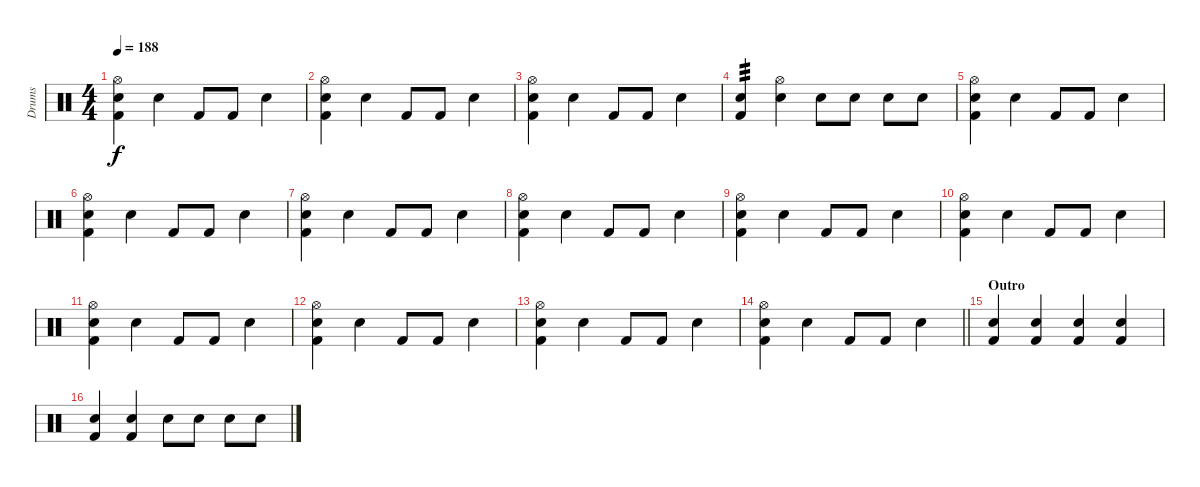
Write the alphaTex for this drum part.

\track ("Drums" "Drums") {instrument percussion}
\staff {score}
\articulation defaults
\ts (4 4)
\tempo 188
\clef neutral
\ks c
("Hi-Hat (open)" "Electric Snare (hit)" "Kick (hit) 2").4{dy f} "Electric Snare (hit)".4 "Kick (hit) 2".8 "Kick (hit) 2".8 "Electric Snare (hit)".4 |
("Hi-Hat (open)" "Electric Snare (hit)" "Kick (hit) 2").4 "Electric Snare (hit)".4 "Kick (hit) 2".8 "Kick (hit) 2".8 "Electric Snare (hit)".4 |
("Hi-Hat (open)" "Electric Snare (hit)" "Kick (hit) 2").4 "Electric Snare (hit)".4 "Kick (hit) 2".8 "Kick (hit) 2".8 "Electric Snare (hit)".4 |
("Electric Snare (hit)" "Kick (hit) 2").4{tp 3} ("Hi-Hat (open)" "Electric Snare (hit)").4 "Electric Snare (hit)".8 "Electric Snare (hit)".8 "Electric Snare (hit)".8 "Electric Snare (hit)".8 |
("Hi-Hat (open)" "Electric Snare (hit)" "Kick (hit) 2").4 "Electric Snare (hit)".4 "Kick (hit) 2".8 "Kick (hit) 2".8 "Electric Snare (hit)".4 |
("Hi-Hat (open)" "Electric Snare (hit)" "Kick (hit) 2").4 "Electric Snare (hit)".4 "Kick (hit) 2".8 "Kick (hit) 2".8 "Electric Snare (hit)".4 |
("Hi-Hat (open)" "Electric Snare (hit)" "Kick (hit) 2").4 "Electric Snare (hit)".4 "Kick (hit) 2".8 "Kick (hit) 2".8 "Electric Snare (hit)".4 |
("Hi-Hat (open)" "Electric Snare (hit)" "Kick (hit) 2").4 "Electric Snare (hit)".4 "Kick (hit) 2".8 "Kick (hit) 2".8 "Electric Snare (hit)".4 |
("Hi-Hat (open)" "Electric Snare (hit)" "Kick (hit) 2").4 "Electric Snare (hit)".4 "Kick (hit) 2".8 "Kick (hit) 2".8 "Electric Snare (hit)".4 |
("Hi-Hat (open)" "Electric Snare (hit)" "Kick (hit) 2").4 "Electric Snare (hit)".4 "Kick (hit) 2".8 "Kick (hit) 2".8 "Electric Snare (hit)".4 |
("Hi-Hat (open)" "Electric Snare (hit)" "Kick (hit) 2").4 "Electric Snare (hit)".4 "Kick (hit) 2".8 "Kick (hit) 2".8 "Electric Snare (hit)".4 |
("Hi-Hat (open)" "Electric Snare (hit)" "Kick (hit) 2").4 "Electric Snare (hit)".4 "Kick (hit) 2".8 "Kick (hit) 2".8 "Electric Snare (hit)".4 |
("Hi-Hat (open)" "Electric Snare (hit)" "Kick (hit) 2").4 "Electric Snare (hit)".4 "Kick (hit) 2".8 "Kick (hit) 2".8 "Electric Snare (hit)".4 |
\barLineRight lightlight
("Hi-Hat (open)" "Electric Snare (hit)" "Kick (hit) 2").4 "Electric Snare (hit)".4 "Kick (hit) 2".8 "Kick (hit) 2".8 "Electric Snare (hit)".4 |
\section ("" "Outro")
("Electric Snare (hit)" "Kick (hit) 2").4 ("Electric Snare (hit)" "Kick (hit) 2").4 ("Electric Snare (hit)" "Kick (hit) 2").4 ("Electric Snare (hit)" "Kick (hit) 2").4 |
("Electric Snare (hit)" "Kick (hit) 2").4 ("Electric Snare (hit)" "Kick (hit) 2").4 "Electric Snare (hit)".8 "Electric Snare (hit)".8 "Electric Snare (hit)".8 "Electric Snare (hit)".8
